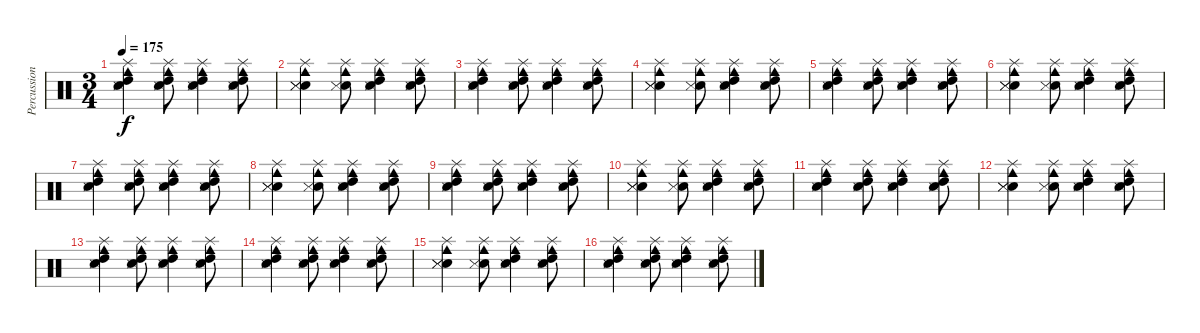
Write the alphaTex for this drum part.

\track ("Percussion" "Percussion") {instrument percussion}
\staff {score}
\articulation defaults
\ts (3 4)
\tempo 175
\clef neutral
\ks c
("Snare (hit) 2" "Snare (side stick) 3" "High Tom (hit)" "Splash (hit)" "Cowbell medium (hit)").4{dy f} ("Snare (hit) 2" "Snare (side stick) 3" "High Tom (hit)" "Splash (hit)" "Cowbell medium (hit)").8 ("Snare (hit) 2" "Snare (side stick) 3" "High Tom (hit)" "Splash (hit)" "Cowbell medium (hit)").4 ("Snare (hit) 2" "Snare (side stick) 3" "High Tom (hit)" "Splash (hit)" "Cowbell medium (hit)").8 |
("Snare (hit) 2" "Snare (side stick) 3" "Snare (side stick) 3" "Splash (hit)" "Cowbell medium (hit)").4 ("Snare (hit) 2" "Snare (side stick) 3" "Splash (hit)" "Cowbell medium (hit)").8 ("Snare (hit) 2" "Snare (side stick) 3" "High Tom (hit)" "Splash (hit)" "Cowbell medium (hit)").4 ("Snare (hit) 2" "Snare (side stick) 3" "High Tom (hit)" "Splash (hit)" "Cowbell medium (hit)").8 |
("Snare (hit) 2" "Snare (side stick) 3" "High Tom (hit)" "Splash (hit)" "Cowbell medium (hit)").4 ("Snare (hit) 2" "Snare (side stick) 3" "High Tom (hit)" "Splash (hit)" "Cowbell medium (hit)").8 ("Snare (hit) 2" "Snare (side stick) 3" "High Tom (hit)" "Splash (hit)" "Cowbell medium (hit)").4 ("Snare (hit) 2" "Snare (side stick) 3" "High Tom (hit)" "Splash (hit)" "Cowbell medium (hit)").8 |
("Snare (hit) 2" "Snare (side stick) 3" "Snare (side stick) 3" "Splash (hit)" "Cowbell medium (hit)").4 ("Snare (hit) 2" "Snare (side stick) 3" "Splash (hit)" "Cowbell medium (hit)").8 ("Snare (hit) 2" "Snare (side stick) 3" "High Tom (hit)" "Splash (hit)" "Cowbell medium (hit)").4 ("Snare (hit) 2" "Snare (side stick) 3" "High Tom (hit)" "Splash (hit)" "Cowbell medium (hit)").8 |
("Snare (hit) 2" "Snare (side stick) 3" "High Tom (hit)" "Splash (hit)" "Cowbell medium (hit)").4 ("Snare (hit) 2" "Snare (side stick) 3" "High Tom (hit)" "Splash (hit)" "Cowbell medium (hit)").8 ("Snare (hit) 2" "Snare (side stick) 3" "High Tom (hit)" "Splash (hit)" "Cowbell medium (hit)").4 ("Snare (hit) 2" "Snare (side stick) 3" "High Tom (hit)" "Splash (hit)" "Cowbell medium (hit)").8 |
("Snare (hit) 2" "Snare (side stick) 3" "Snare (side stick) 3" "Splash (hit)" "Cowbell medium (hit)").4 ("Snare (hit) 2" "Snare (side stick) 3" "Splash (hit)" "Cowbell medium (hit)").8 ("Snare (hit) 2" "Snare (side stick) 3" "High Tom (hit)" "Splash (hit)" "Cowbell medium (hit)").4 ("Snare (hit) 2" "Snare (side stick) 3" "High Tom (hit)" "Splash (hit)" "Cowbell medium (hit)").8 |
("Snare (hit) 2" "Snare (side stick) 3" "High Tom (hit)" "Splash (hit)" "Cowbell medium (hit)").4 ("Snare (hit) 2" "Snare (side stick) 3" "High Tom (hit)" "Splash (hit)" "Cowbell medium (hit)").8 ("Snare (hit) 2" "Snare (side stick) 3" "High Tom (hit)" "Splash (hit)" "Cowbell medium (hit)").4 ("Snare (hit) 2" "Snare (side stick) 3" "High Tom (hit)" "Splash (hit)" "Cowbell medium (hit)").8 |
("Snare (hit) 2" "Snare (side stick) 3" "Snare (side stick) 3" "Splash (hit)" "Cowbell medium (hit)").4 ("Snare (hit) 2" "Snare (side stick) 3" "Splash (hit)" "Cowbell medium (hit)").8 ("Snare (hit) 2" "Snare (side stick) 3" "High Tom (hit)" "Splash (hit)" "Cowbell medium (hit)").4 ("Snare (hit) 2" "Snare (side stick) 3" "High Tom (hit)" "Splash (hit)" "Cowbell medium (hit)").8 |
("Snare (hit) 2" "Snare (side stick) 3" "High Tom (hit)" "Splash (hit)" "Cowbell medium (hit)").4 ("Snare (hit) 2" "Snare (side stick) 3" "High Tom (hit)" "Splash (hit)" "Cowbell medium (hit)").8 ("Snare (hit) 2" "Snare (side stick) 3" "High Tom (hit)" "Splash (hit)" "Cowbell medium (hit)").4 ("Snare (hit) 2" "Snare (side stick) 3" "High Tom (hit)" "Splash (hit)" "Cowbell medium (hit)").8 |
("Snare (hit) 2" "Snare (side stick) 3" "Snare (side stick) 3" "Splash (hit)" "Cowbell medium (hit)").4 ("Snare (hit) 2" "Snare (side stick) 3" "Splash (hit)" "Cowbell medium (hit)").8 ("Snare (hit) 2" "Snare (side stick) 3" "High Tom (hit)" "Splash (hit)" "Cowbell medium (hit)").4 ("Snare (hit) 2" "Snare (side stick) 3" "High Tom (hit)" "Splash (hit)" "Cowbell medium (hit)").8 |
("Snare (hit) 2" "Snare (side stick) 3" "High Tom (hit)" "Splash (hit)" "Cowbell medium (hit)").4 ("Snare (hit) 2" "Snare (side stick) 3" "High Tom (hit)" "Splash (hit)" "Cowbell medium (hit)").8 ("Snare (hit) 2" "Snare (side stick) 3" "High Tom (hit)" "Splash (hit)" "Cowbell medium (hit)").4 ("Snare (hit) 2" "Snare (side stick) 3" "High Tom (hit)" "Splash (hit)" "Cowbell medium (hit)").8 |
("Snare (hit) 2" "Snare (side stick) 3" "Snare (side stick) 3" "Splash (hit)" "Cowbell medium (hit)").4 ("Snare (hit) 2" "Snare (side stick) 3" "Splash (hit)" "Cowbell medium (hit)").8 ("Snare (hit) 2" "Snare (side stick) 3" "High Tom (hit)" "Splash (hit)" "Cowbell medium (hit)").4 ("Snare (hit) 2" "Snare (side stick) 3" "High Tom (hit)" "Splash (hit)" "Cowbell medium (hit)").8 |
("Snare (hit) 2" "Snare (side stick) 3" "High Tom (hit)" "Splash (hit)" "Cowbell medium (hit)").4 ("Snare (hit) 2" "Snare (side stick) 3" "High Tom (hit)" "Splash (hit)" "Cowbell medium (hit)").8 ("Snare (hit) 2" "Snare (side stick) 3" "High Tom (hit)" "Splash (hit)" "Cowbell medium (hit)").4 ("Snare (hit) 2" "Snare (side stick) 3" "High Tom (hit)" "Splash (hit)" "Cowbell medium (hit)").8 |
("Snare (hit) 2" "Snare (side stick) 3" "High Tom (hit)" "Splash (hit)" "Cowbell medium (hit)").4 ("Snare (hit) 2" "Snare (side stick) 3" "High Tom (hit)" "Splash (hit)" "Cowbell medium (hit)").8 ("Snare (hit) 2" "Snare (side stick) 3" "High Tom (hit)" "Splash (hit)" "Cowbell medium (hit)").4 ("Snare (hit) 2" "Snare (side stick) 3" "High Tom (hit)" "Splash (hit)" "Cowbell medium (hit)").8 |
("Snare (hit) 2" "Snare (side stick) 3" "Snare (side stick) 3" "Splash (hit)" "Cowbell medium (hit)").4 ("Snare (hit) 2" "Snare (side stick) 3" "Splash (hit)" "Cowbell medium (hit)").8 ("Snare (hit) 2" "Snare (side stick) 3" "High Tom (hit)" "Splash (hit)" "Cowbell medium (hit)").4 ("Snare (hit) 2" "Snare (side stick) 3" "High Tom (hit)" "Splash (hit)" "Cowbell medium (hit)").8 |
("Snare (hit) 2" "Snare (side stick) 3" "High Tom (hit)" "Splash (hit)" "Cowbell medium (hit)").4 ("Snare (hit) 2" "Snare (side stick) 3" "High Tom (hit)" "Splash (hit)" "Cowbell medium (hit)").8 ("Snare (hit) 2" "Snare (side stick) 3" "High Tom (hit)" "Splash (hit)" "Cowbell medium (hit)").4 ("Snare (hit) 2" "Snare (side stick) 3" "High Tom (hit)" "Splash (hit)" "Cowbell medium (hit)").8
